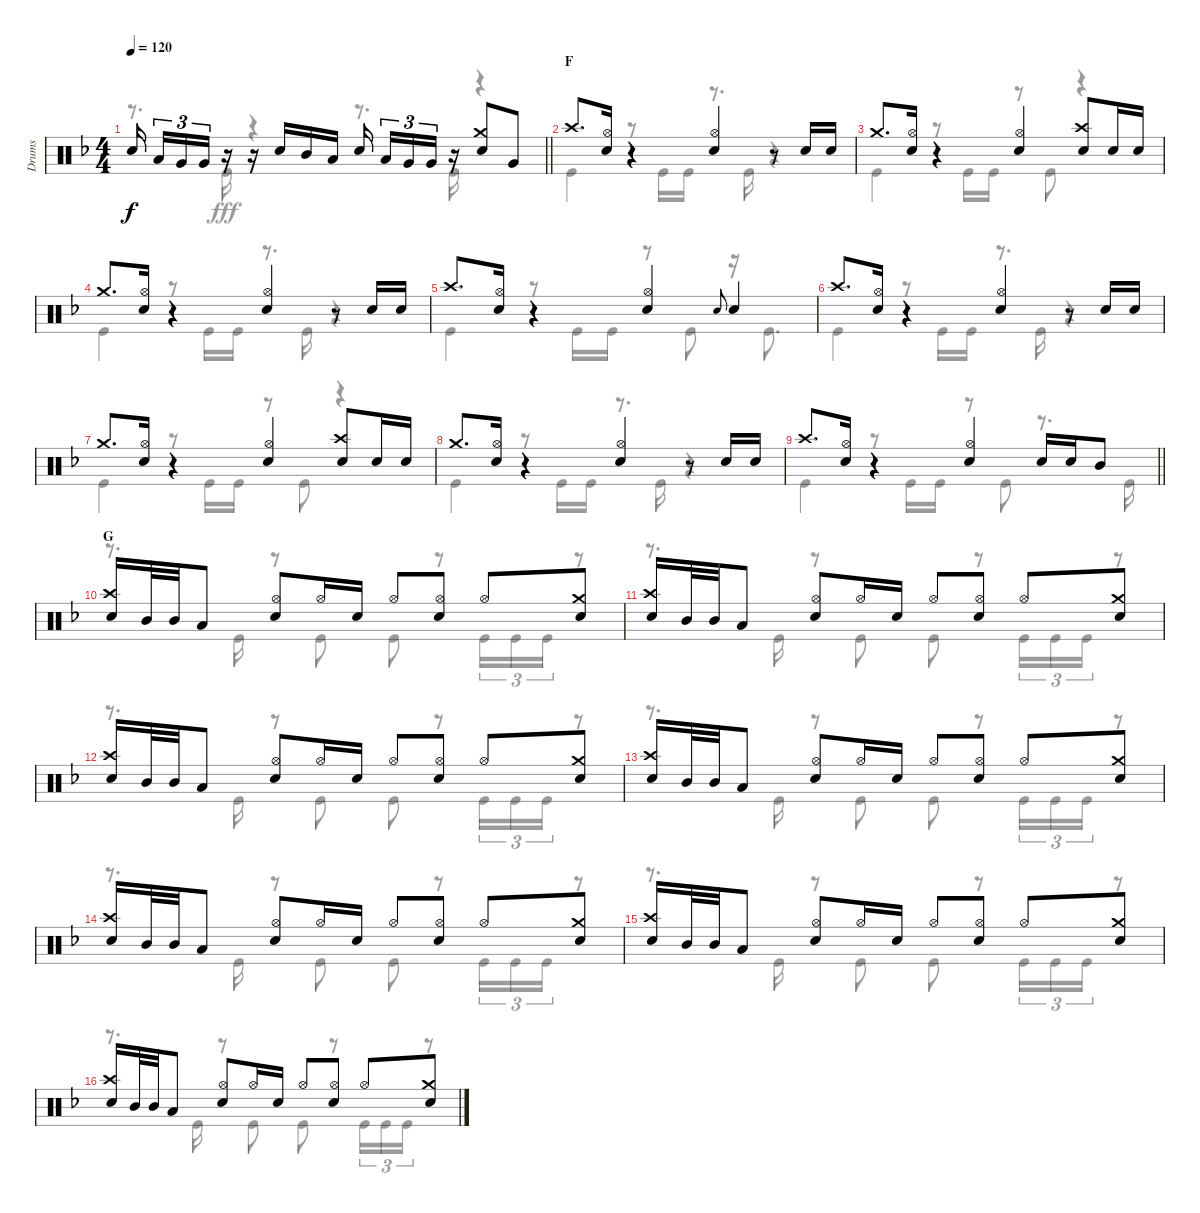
\track ("Drums" "Drums") {instrument percussion}
\staff {score}
\articulation defaults
\voice
\ts (4 4)
\tempo 120
\clef neutral
\barLineRight lightlight
\ks f "Snare (hit) 2".16{dy f beam splitsecondary} "Low Tom (hit)".16{tu (3 2)} "Very Low Tom (hit)".16{tu (3 2)} "Very Low Tom (hit)".16{tu (3 2)}
r.16 r.16 "Snare (hit) 2".16 "Mid Tom (hit)".16 "Low Tom (hit)".16 "Snare (hit) 2".16{beam splitsecondary} "Low Tom (hit)".16{tu (3 2)} "Very Low Tom (hit)".16{tu (3 2)} "Very Low Tom (hit)".16{tu (3 2)} r.16 ("Crash medium (hit)" "Snare (hit) 2").8 "Very Low Tom (hit)".8 |
\section ("" "F")
"Crash high (hit)".8{d} ("Hi-Hat (open)" "Snare (hit) 2").16 r.4 ("Hi-Hat (open)" "Snare (hit) 2").4 r.8 "Snare (hit) 2".16 "Snare (hit) 2".16 |
"Crash medium (hit)".8{d} ("Hi-Hat (open)" "Snare (hit) 2").16 r.4 ("Hi-Hat (open)" "Snare (hit) 2").4 ("Crash high (hit)" "Snare (hit) 2").8 "Snare (hit) 2".16 "Snare (hit) 2".16 |
"Crash medium (hit)".8{d} ("Hi-Hat (open)" "Snare (hit) 2").16 r.4 ("Hi-Hat (open)" "Snare (hit) 2").4 r.8 "Snare (hit) 2".16 "Snare (hit) 2".16 |
"Crash high (hit)".8{d} ("Hi-Hat (open)" "Snare (hit) 2").16 r.4 ("Hi-Hat (open)" "Snare (hit) 2").4 "Snare (hit) 2".8{gr onbeat} "Snare (hit) 2".4 |
"Crash high (hit)".8{d} ("Hi-Hat (open)" "Snare (hit) 2").16 r.4 ("Hi-Hat (open)" "Snare (hit) 2").4 r.8 "Snare (hit) 2".16 "Snare (hit) 2".16 |
"Crash medium (hit)".8{d} ("Hi-Hat (open)" "Snare (hit) 2").16 r.4 ("Hi-Hat (open)" "Snare (hit) 2").4 ("Crash high (hit)" "Snare (hit) 2").8 "Snare (hit) 2".16 "Snare (hit) 2".16 |
"Crash medium (hit)".8{d} ("Hi-Hat (open)" "Snare (hit) 2").16 r.4 ("Hi-Hat (open)" "Snare (hit) 2").4 r.8 "Snare (hit) 2".16 "Snare (hit) 2".16 |
\barLineRight lightlight "Crash high (hit)".8{d}
("Hi-Hat (open)" "Snare (hit) 2").16 r.4 ("Hi-Hat (open)" "Snare (hit) 2").4 "Snare (hit) 2".16 "Snare (hit) 2".16 "Mid Tom (hit)".8 |
\section ("" "G")
("Crash high (hit)" "Snare (hit) 2").16 "Mid Tom (hit)".32 "Mid Tom (hit)".32 "Low Tom (hit)".8 ("Hi-Hat (open)" "Snare (hit) 2").8 "Hi-Hat (open)".16 "Snare (hit) 2".16 "Hi-Hat (open)".8 ("Hi-Hat (open)" "Snare (hit) 2").8 "Hi-Hat (open)".8 ("Crash medium (hit)" "Snare (hit) 2").8 |
("Crash high (hit)" "Snare (hit) 2").16 "Mid Tom (hit)".32 "Mid Tom (hit)".32 "Low Tom (hit)".8 ("Hi-Hat (open)" "Snare (hit) 2").8 "Hi-Hat (open)".16 "Snare (hit) 2".16 "Hi-Hat (open)".8 ("Hi-Hat (open)" "Snare (hit) 2").8 "Hi-Hat (open)".8 ("Crash medium (hit)" "Snare (hit) 2").8 |
("Crash high (hit)" "Snare (hit) 2").16 "Mid Tom (hit)".32 "Mid Tom (hit)".32 "Low Tom (hit)".8 ("Hi-Hat (open)" "Snare (hit) 2").8 "Hi-Hat (open)".16 "Snare (hit) 2".16 "Hi-Hat (open)".8 ("Hi-Hat (open)" "Snare (hit) 2").8 "Hi-Hat (open)".8 ("Crash medium (hit)" "Snare (hit) 2").8 |
("Crash high (hit)" "Snare (hit) 2").16 "Mid Tom (hit)".32 "Mid Tom (hit)".32 "Low Tom (hit)".8 ("Hi-Hat (open)" "Snare (hit) 2").8 "Hi-Hat (open)".16 "Snare (hit) 2".16 "Hi-Hat (open)".8 ("Hi-Hat (open)" "Snare (hit) 2").8 "Hi-Hat (open)".8 ("Crash medium (hit)" "Snare (hit) 2").8 |
("Crash high (hit)" "Snare (hit) 2").16 "Mid Tom (hit)".32 "Mid Tom (hit)".32 "Low Tom (hit)".8 ("Hi-Hat (open)" "Snare (hit) 2").8 "Hi-Hat (open)".16 "Snare (hit) 2".16 "Hi-Hat (open)".8 ("Hi-Hat (open)" "Snare (hit) 2").8 "Hi-Hat (open)".8 ("Crash medium (hit)" "Snare (hit) 2").8 |
("Crash high (hit)" "Snare (hit) 2").16 "Mid Tom (hit)".32 "Mid Tom (hit)".32 "Low Tom (hit)".8 ("Hi-Hat (open)" "Snare (hit) 2").8 "Hi-Hat (open)".16 "Snare (hit) 2".16 "Hi-Hat (open)".8 ("Hi-Hat (open)" "Snare (hit) 2").8 "Hi-Hat (open)".8 ("Crash medium (hit)" "Snare (hit) 2").8 |
("Crash high (hit)" "Snare (hit) 2").16 "Mid Tom (hit)".32 "Mid Tom (hit)".32 "Low Tom (hit)".8 ("Hi-Hat (open)" "Snare (hit) 2").8 "Hi-Hat (open)".16 "Snare (hit) 2".16 "Hi-Hat (open)".8 ("Hi-Hat (open)" "Snare (hit) 2").8 "Hi-Hat (open)".8 ("Crash medium (hit)" "Snare (hit) 2").8
\voice
\clef neutral
\ottava regular
\simile none
\barLineRight lightlight
\ks f
r.8{d dy fff} "Kick (hit)".16 r.4 r.8{d} "Kick (hit)".16 r.4 |
"Kick (hit)".4 r.8 "Kick (hit)".16 "Kick (hit)".16 r.8{d} "Kick (hit)".16 r.4 |
"Kick (hit)".4 r.8 "Kick (hit)".16 "Kick (hit)".16 r.8 "Kick (hit)".8 r.4 |
"Kick (hit)".4 r.8 "Kick (hit)".16 "Kick (hit)".16 r.8{d} "Kick (hit)".16 r.4 |
"Kick (hit)".4 r.8 "Kick (hit)".16 "Kick (hit)".16 r.8 "Kick (hit)".8 r.16 "Kick (hit)".8{d} |
"Kick (hit)".4 r.8 "Kick (hit)".16 "Kick (hit)".16 r.8{d} "Kick (hit)".16 r.4 |
"Kick (hit)".4 r.8 "Kick (hit)".16 "Kick (hit)".16 r.8 "Kick (hit)".8 r.4 |
"Kick (hit)".4 r.8 "Kick (hit)".16 "Kick (hit)".16 r.8{d} "Kick (hit)".16 r.4 |
\barLineRight lightlight "Kick (hit)".4
r.8 "Kick (hit)".16 "Kick (hit)".16 r.8 "Kick (hit)".8 r.8{d} "Kick (hit)".16 |
r.8{d} "Kick (hit)".16 r.8 "Kick (hit)".8 "Kick (hit)".8 r.8 "Kick (hit)".16{tu (3 2)} "Kick (hit)".16{tu (3 2)} "Kick (hit)".16{tu (3 2)} r.8 |
r.8{d} "Kick (hit)".16 r.8 "Kick (hit)".8 "Kick (hit)".8 r.8 "Kick (hit)".16{tu (3 2)} "Kick (hit)".16{tu (3 2)} "Kick (hit)".16{tu (3 2)} r.8 |
r.8{d} "Kick (hit)".16 r.8 "Kick (hit)".8 "Kick (hit)".8 r.8 "Kick (hit)".16{tu (3 2)} "Kick (hit)".16{tu (3 2)} "Kick (hit)".16{tu (3 2)} r.8 |
r.8{d} "Kick (hit)".16 r.8 "Kick (hit)".8 "Kick (hit)".8 r.8 "Kick (hit)".16{tu (3 2)} "Kick (hit)".16{tu (3 2)} "Kick (hit)".16{tu (3 2)} r.8 |
r.8{d} "Kick (hit)".16 r.8 "Kick (hit)".8 "Kick (hit)".8 r.8 "Kick (hit)".16{tu (3 2)} "Kick (hit)".16{tu (3 2)} "Kick (hit)".16{tu (3 2)} r.8 |
r.8{d} "Kick (hit)".16 r.8 "Kick (hit)".8 "Kick (hit)".8 r.8 "Kick (hit)".16{tu (3 2)} "Kick (hit)".16{tu (3 2)} "Kick (hit)".16{tu (3 2)} r.8 |
r.8{d} "Kick (hit)".16 r.8 "Kick (hit)".8 "Kick (hit)".8 r.8 "Kick (hit)".16{tu (3 2)} "Kick (hit)".16{tu (3 2)} "Kick (hit)".16{tu (3 2)} r.8
